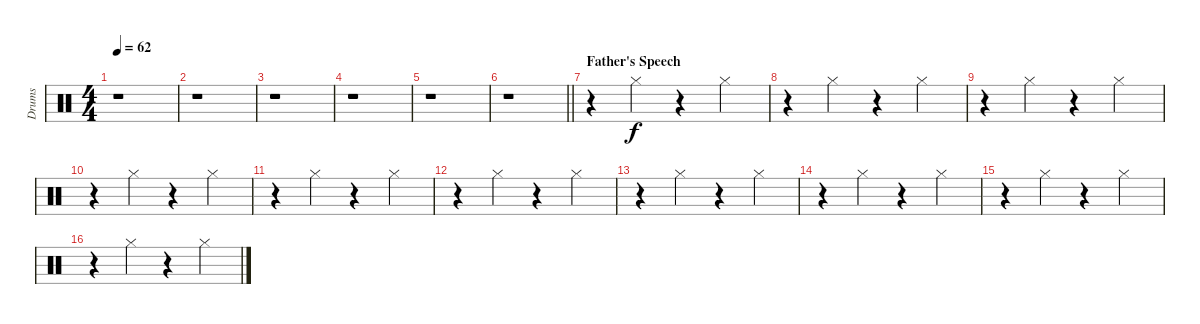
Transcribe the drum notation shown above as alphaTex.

\track ("Drums" "Drums") {instrument percussion}
\staff {score}
\articulation defaults
\ts (4 4)
\tempo 62
\clef neutral
\ks c
r.1{dy f} |
r.1 |
r.1 |
r.1 |
r.1 |
\barLineRight lightlight
r.1 |
\section ("" "Father's Speech")
r.4 "Hi-Hat (closed)".4 r.4 "Hi-Hat (closed)".4 |
r.4 "Hi-Hat (closed)".4 r.4 "Hi-Hat (closed)".4 |
r.4 "Hi-Hat (closed)".4 r.4 "Hi-Hat (closed)".4 |
r.4 "Hi-Hat (closed)".4 r.4 "Hi-Hat (closed)".4 |
r.4 "Hi-Hat (closed)".4 r.4 "Hi-Hat (closed)".4 |
r.4 "Hi-Hat (closed)".4 r.4 "Hi-Hat (closed)".4 |
r.4 "Hi-Hat (closed)".4 r.4 "Hi-Hat (closed)".4 |
r.4 "Hi-Hat (closed)".4 r.4 "Hi-Hat (closed)".4 |
r.4 "Hi-Hat (closed)".4 r.4 "Hi-Hat (closed)".4 |
r.4 "Hi-Hat (closed)".4 r.4 "Hi-Hat (closed)".4
